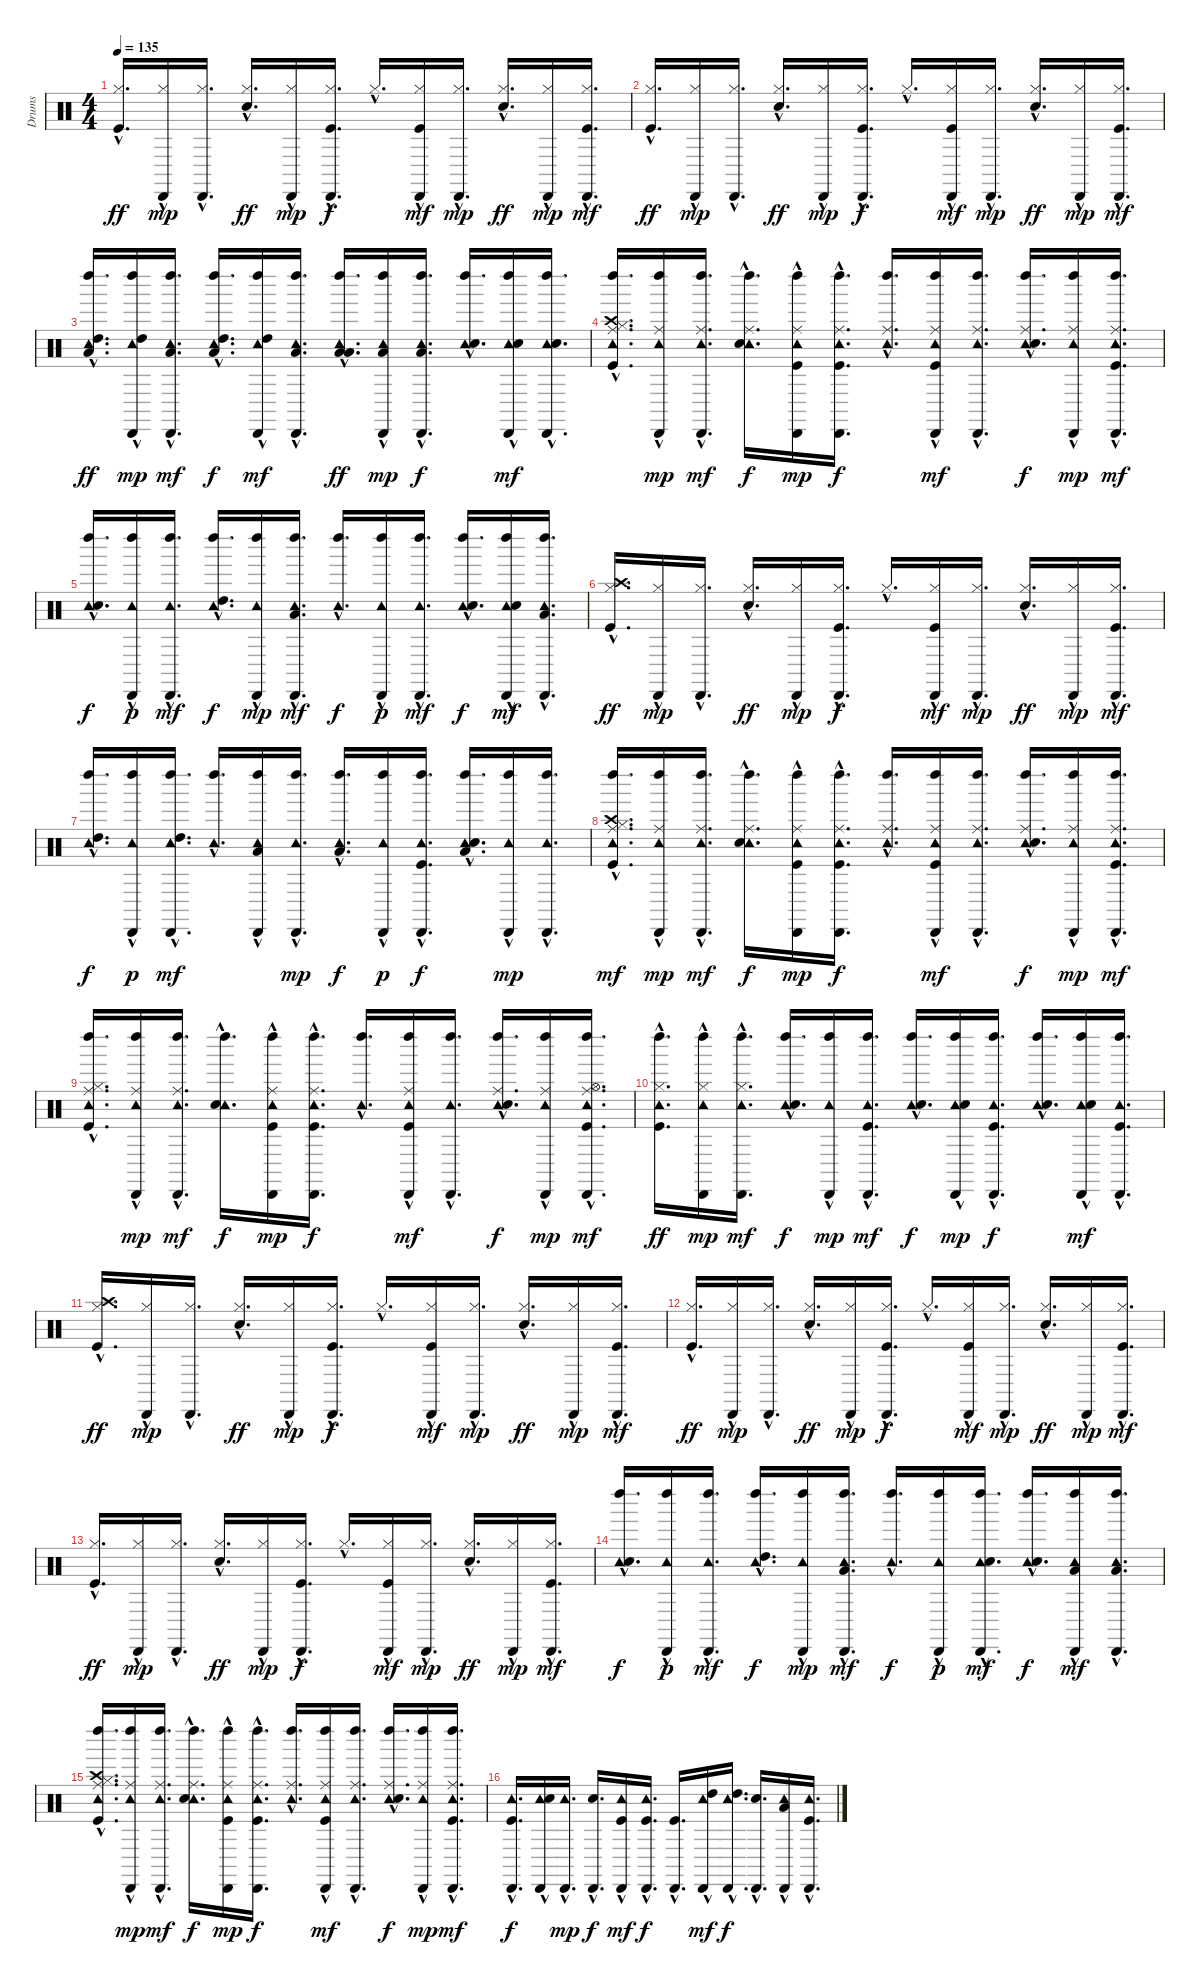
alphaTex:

\track ("Drums" "Drums") {instrument percussion}
\staff {score}
\articulation defaults
\ts (4 4)
\tempo 135
\clef neutral
\ks c
("Hi-Hat (closed)"{hac} "Kick (hit)"{hac}).16{d dy ff} ("Cabasa (hit)"{hac} "Hi-Hat (closed)"{hac}).16{dy mp} ("Cabasa (hit)"{hac} "Hi-Hat (closed)"{hac}).16{d} ("Hi-Hat (closed)"{hac} "Snare (hit) 2"{hac}).16{d dy ff} ("Cabasa (hit)"{hac} "Hi-Hat (closed)"{hac}).16{dy mp} ("Cabasa (hit)"{hac} "Hi-Hat (closed)"{hac} "Kick (hit)"{hac}).16{d dy f} "Hi-Hat (closed)"{hac}.16{d} ("Cabasa (hit)"{hac} "Hi-Hat (closed)"{hac} "Kick (hit)"{hac}).16{dy mf} ("Cabasa (hit)"{hac} "Hi-Hat (closed)"{hac}).16{d dy mp} ("Hi-Hat (closed)"{hac} "Snare (hit) 2"{hac}).16{d dy ff} ("Cabasa (hit)"{hac} "Hi-Hat (closed)"{hac}).16{dy mp} ("Cabasa (hit)"{hac} "Hi-Hat (closed)"{hac} "Kick (hit)"{hac}).16{d dy mf} |
("Hi-Hat (closed)"{hac} "Kick (hit)"{hac}).16{d dy ff} ("Cabasa (hit)"{hac} "Hi-Hat (closed)"{hac}).16{dy mp} ("Cabasa (hit)"{hac} "Hi-Hat (closed)"{hac}).16{d} ("Hi-Hat (closed)"{hac} "Snare (hit) 2"{hac}).16{d dy ff} ("Cabasa (hit)"{hac} "Hi-Hat (closed)"{hac}).16{dy mp} ("Cabasa (hit)"{hac} "Hi-Hat (closed)"{hac} "Kick (hit)"{hac}).16{d dy f} "Hi-Hat (closed)"{hac}.16{d} ("Cabasa (hit)"{hac} "Hi-Hat (closed)"{hac} "Kick (hit)"{hac}).16{dy mf} ("Cabasa (hit)"{hac} "Hi-Hat (closed)"{hac}).16{d dy mp} ("Hi-Hat (closed)"{hac} "Snare (hit) 2"{hac}).16{d dy ff} ("Cabasa (hit)"{hac} "Hi-Hat (closed)"{hac}).16{dy mp} ("Cabasa (hit)"{hac} "Hi-Hat (closed)"{hac} "Kick (hit)"{hac}).16{d dy mf} |
("Left Maraca (hit)"{hac} "Tambourine (hit)"{hac} "High Tom (hit)"{hac} "Low Tom (hit)"{hac}).16{d dy ff} ("Left Maraca (hit)"{hac} "Cabasa (hit)"{hac} "Tambourine (hit)"{hac} "High Tom (hit)"{hac}).16{dy mp} ("Left Maraca (hit)"{hac} "Cabasa (hit)"{hac} "Tambourine (hit)"{hac} "Low Tom (hit)"{hac}).16{d dy mf} ("Left Maraca (hit)"{hac} "Tambourine (hit)"{hac} "High Tom (hit)"{hac} "Low Tom (hit)"{hac}).16{d dy f} ("Left Maraca (hit)"{hac} "Cabasa (hit)"{hac} "Tambourine (hit)"{hac} "High Tom (hit)"{hac}).16{dy mf} ("Left Maraca (hit)"{hac} "Cabasa (hit)"{hac} "Tambourine (hit)"{hac} "Low Tom (hit)"{hac}).16{d} ("Left Maraca (hit)"{hac} "Tambourine (hit)"{hac} "Low Tom (hit)"{hac} "Low Floor Tom (hit)"{hac}).16{d dy ff} ("Left Maraca (hit)"{hac} "Cabasa (hit)"{hac} "Tambourine (hit)"{hac} "Low Tom (hit)"{hac}).16{dy mp} ("Left Maraca (hit)"{hac} "Cabasa (hit)"{hac} "Tambourine (hit)"{hac} "Low Floor Tom (hit)"{hac}).16{d dy f} ("Left Maraca (hit)"{hac} "Tambourine (hit)"{hac} "Snare (hit) 2"{hac}).16{d} ("Left Maraca (hit)"{hac} "Cabasa (hit)"{hac} "Tambourine (hit)"{hac} "Snare (hit) 2"{hac}).16{dy mf} ("Left Maraca (hit)"{hac} "Cabasa (hit)"{hac} "Tambourine (hit)"{hac} "Snare (hit) 2"{hac}).16{d} |
("Left Maraca (hit)"{hac} "Tambourine (hit)"{hac} "Ride (middle)"{hac} "Crash high (hit)"{hac} "Hi-Hat (closed)"{hac} "Kick (hit)"{hac}).16{d} ("Left Maraca (hit)"{hac} "Cabasa (hit)"{hac} "Tambourine (hit)"{hac} "Ride (middle)"{hac}).16{dy mp} ("Left Maraca (hit)"{hac} "Cabasa (hit)"{hac} "Tambourine (hit)"{hac} "Ride (middle)"{hac}).16{d dy mf} ("Left Maraca (hit)"{hac} "Tambourine (hit)"{hac} "Ride (middle)"{hac} "Snare (hit) 2"{hac}).16{d dy f} ("Left Maraca (hit)"{hac} "Cabasa (hit)"{hac} "Tambourine (hit)"{hac} "Ride (middle)"{hac} "Kick (hit)"{hac}).16{dy mp} ("Left Maraca (hit)"{hac} "Cabasa (hit)"{hac} "Tambourine (hit)"{hac} "Ride (middle)"{hac} "Kick (hit)"{hac}).16{d dy f} ("Left Maraca (hit)"{hac} "Tambourine (hit)"{hac} "Ride (middle)"{hac}).16{d} ("Left Maraca (hit)"{hac} "Cabasa (hit)"{hac} "Tambourine (hit)"{hac} "Ride (middle)"{hac} "Kick (hit)"{hac}).16{dy mf} ("Left Maraca (hit)"{hac} "Cabasa (hit)"{hac} "Tambourine (hit)"{hac} "Ride (middle)"{hac}).16{d} ("Left Maraca (hit)"{hac} "Tambourine (hit)"{hac} "Ride (middle)"{hac} "Snare (hit) 2"{hac}).16{d dy f} ("Left Maraca (hit)"{hac} "Cabasa (hit)"{hac} "Tambourine (hit)"{hac} "Ride (middle)"{hac}).16{dy mp} ("Left Maraca (hit)"{hac} "Cabasa (hit)"{hac} "Tambourine (hit)"{hac} "Ride (middle)"{hac} "Kick (hit)"{hac}).16{d dy mf} |
("Left Maraca (hit)"{hac} "Tambourine (hit)"{hac} "Snare (hit) 2"{hac}).16{d dy f} ("Left Maraca (hit)"{hac} "Cabasa (hit)"{hac} "Tambourine (hit)"{hac}).16{dy p} ("Left Maraca (hit)"{hac} "Cabasa (hit)"{hac} "Tambourine (hit)"{hac}).16{d dy mf} ("Left Maraca (hit)"{hac} "Tambourine (hit)"{hac} "High Tom (hit)"{hac}).16{d dy f} ("Left Maraca (hit)"{hac} "Cabasa (hit)"{hac} "Tambourine (hit)"{hac}).16{dy mp} ("Left Maraca (hit)"{hac} "Cabasa (hit)"{hac} "Tambourine (hit)"{hac} "Low Tom (hit)"{hac}).16{d dy mf} ("Left Maraca (hit)"{hac} "Tambourine (hit)"{hac}).16{d dy f} ("Left Maraca (hit)"{hac} "Cabasa (hit)"{hac} "Tambourine (hit)"{hac}).16{dy p} ("Left Maraca (hit)"{hac} "Cabasa (hit)"{hac} "Tambourine (hit)"{hac}).16{d dy mf} ("Left Maraca (hit)"{hac} "Tambourine (hit)"{hac} "Snare (hit) 2"{hac}).16{d dy f} ("Left Maraca (hit)"{hac} "Cabasa (hit)"{hac} "Tambourine (hit)"{hac} "Snare (hit) 2"{hac}).16{dy mf} ("Left Maraca (hit)"{hac} "Cabasa (hit)"{hac} "Tambourine (hit)"{hac} "Low Floor Tom (hit)"{hac}).16{d} |
("Crash high (hit)"{hac} "Hi-Hat (closed)"{hac} "Kick (hit)"{hac}).16{d dy ff} ("Cabasa (hit)"{hac} "Hi-Hat (closed)"{hac}).16{dy mp} ("Cabasa (hit)"{hac} "Hi-Hat (closed)"{hac}).16{d} ("Hi-Hat (closed)"{hac} "Snare (hit) 2"{hac}).16{d dy ff} ("Cabasa (hit)"{hac} "Hi-Hat (closed)"{hac}).16{dy mp} ("Cabasa (hit)"{hac} "Hi-Hat (closed)"{hac} "Kick (hit)"{hac}).16{d dy f} "Hi-Hat (closed)"{hac}.16{d} ("Cabasa (hit)"{hac} "Hi-Hat (closed)"{hac} "Kick (hit)"{hac}).16{dy mf} ("Cabasa (hit)"{hac} "Hi-Hat (closed)"{hac}).16{d dy mp} ("Hi-Hat (closed)"{hac} "Snare (hit) 2"{hac}).16{d dy ff} ("Cabasa (hit)"{hac} "Hi-Hat (closed)"{hac}).16{dy mp} ("Cabasa (hit)"{hac} "Hi-Hat (closed)"{hac} "Kick (hit)"{hac}).16{d dy mf} |
("Left Maraca (hit)"{hac} "Tambourine (hit)"{hac} "High Tom (hit)"{hac}).16{d dy f} ("Left Maraca (hit)"{hac} "Cabasa (hit)"{hac} "Tambourine (hit)"{hac}).16{dy p} ("Left Maraca (hit)"{hac} "Cabasa (hit)"{hac} "Tambourine (hit)"{hac} "High Tom (hit)"{hac}).16{d dy mf} ("Left Maraca (hit)"{hac} "Tambourine (hit)"{hac}).16{d} ("Left Maraca (hit)"{hac} "Cabasa (hit)"{hac} "Tambourine (hit)"{hac} "Low Tom (hit)"{hac}).16 ("Left Maraca (hit)"{hac} "Cabasa (hit)"{hac} "Tambourine (hit)"{hac}).16{d dy mp} ("Left Maraca (hit)"{hac} "Tambourine (hit)"{hac} "Low Tom (hit)"{hac}).16{d dy f} ("Left Maraca (hit)"{hac} "Cabasa (hit)"{hac} "Tambourine (hit)"{hac}).16{dy p} ("Left Maraca (hit)"{hac} "Cabasa (hit)"{hac} "Tambourine (hit)"{hac} "Kick (hit)"{hac}).16{d dy f} ("Left Maraca (hit)"{hac} "Tambourine (hit)"{hac} "Low Floor Tom (hit)"{hac} "Snare (hit) 2"{hac}).16{d} ("Left Maraca (hit)"{hac} "Cabasa (hit)"{hac} "Tambourine (hit)"{hac}).16{dy mp} ("Left Maraca (hit)"{hac} "Cabasa (hit)"{hac} "Tambourine (hit)"{hac}).16{d} |
("Left Maraca (hit)"{hac} "Tambourine (hit)"{hac} "Ride (middle)"{hac} "Crash high (hit)"{hac} "Hi-Hat (closed)"{hac} "Kick (hit)"{hac}).16{d dy mf} ("Left Maraca (hit)"{hac} "Cabasa (hit)"{hac} "Tambourine (hit)"{hac} "Ride (middle)"{hac}).16{dy mp} ("Left Maraca (hit)"{hac} "Cabasa (hit)"{hac} "Tambourine (hit)"{hac} "Ride (middle)"{hac}).16{d dy mf} ("Left Maraca (hit)"{hac} "Tambourine (hit)"{hac} "Ride (middle)"{hac} "Snare (hit) 2"{hac}).16{d dy f} ("Left Maraca (hit)"{hac} "Cabasa (hit)"{hac} "Tambourine (hit)"{hac} "Ride (middle)"{hac} "Kick (hit)"{hac}).16{dy mp} ("Left Maraca (hit)"{hac} "Cabasa (hit)"{hac} "Tambourine (hit)"{hac} "Ride (middle)"{hac} "Kick (hit)"{hac}).16{d dy f} ("Left Maraca (hit)"{hac} "Tambourine (hit)"{hac} "Ride (middle)"{hac}).16{d} ("Left Maraca (hit)"{hac} "Cabasa (hit)"{hac} "Tambourine (hit)"{hac} "Ride (middle)"{hac} "Kick (hit)"{hac}).16{dy mf} ("Left Maraca (hit)"{hac} "Cabasa (hit)"{hac} "Tambourine (hit)"{hac} "Ride (middle)"{hac}).16{d} ("Left Maraca (hit)"{hac} "Tambourine (hit)"{hac} "Ride (middle)"{hac} "Snare (hit) 2"{hac}).16{d dy f} ("Left Maraca (hit)"{hac} "Cabasa (hit)"{hac} "Tambourine (hit)"{hac} "Ride (middle)"{hac}).16{dy mp} ("Left Maraca (hit)"{hac} "Cabasa (hit)"{hac} "Tambourine (hit)"{hac} "Ride (middle)"{hac} "Kick (hit)"{hac}).16{d dy mf} |
("Left Maraca (hit)"{hac} "Tambourine (hit)"{hac} "Ride (middle)"{hac} "Hi-Hat (closed)"{hac} "Kick (hit)"{hac}).16{d} ("Left Maraca (hit)"{hac} "Cabasa (hit)"{hac} "Tambourine (hit)"{hac} "Ride (middle)"{hac}).16{dy mp} ("Left Maraca (hit)"{hac} "Cabasa (hit)"{hac} "Tambourine (hit)"{hac} "Ride (middle)"{hac}).16{d dy mf} ("Left Maraca (hit)"{hac} "Tambourine (hit)"{hac} "Snare (hit) 2"{hac}).16{d dy f} ("Left Maraca (hit)"{hac} "Cabasa (hit)"{hac} "Tambourine (hit)"{hac} "Ride (middle)"{hac} "Kick (hit)"{hac}).16{dy mp} ("Left Maraca (hit)"{hac} "Cabasa (hit)"{hac} "Tambourine (hit)"{hac} "Ride (middle)"{hac} "Kick (hit)"{hac}).16{d dy f} ("Left Maraca (hit)"{hac} "Tambourine (hit)"{hac}).16{d} ("Left Maraca (hit)"{hac} "Cabasa (hit)"{hac} "Tambourine (hit)"{hac} "Ride (middle)"{hac} "Kick (hit)"{hac}).16{dy mf} ("Left Maraca (hit)"{hac} "Cabasa (hit)"{hac} "Tambourine (hit)"{hac}).16{d} ("Left Maraca (hit)"{hac} "Tambourine (hit)"{hac} "Ride (middle)"{hac} "Snare (hit) 2"{hac}).16{d dy f} ("Left Maraca (hit)"{hac} "Cabasa (hit)"{hac} "Tambourine (hit)"{hac} "Ride (middle)"{hac}).16{dy mp} ("Left Maraca (hit)"{hac} "Cabasa (hit)"{hac} "Tambourine (hit)"{hac} "Ride (middle)"{hac} "Hi-Hat (open)"{hac} "Kick (hit)"{hac}).16{d dy mf} |
("Left Maraca (hit)"{hac} "Tambourine (hit)"{hac} "Hi-Hat (closed)"{hac} "Kick (hit)"{hac}).16{d dy ff} ("Left Maraca (hit)"{hac} "Cabasa (hit)"{hac} "Tambourine (hit)"{hac} "Hi-Hat (closed)"{hac}).16{dy mp} ("Left Maraca (hit)"{hac} "Cabasa (hit)"{hac} "Tambourine (hit)"{hac} "Hi-Hat (closed)"{hac}).16{d dy mf} ("Left Maraca (hit)"{hac} "Tambourine (hit)"{hac} "Snare (hit) 2"{hac}).16{d dy f} ("Left Maraca (hit)"{hac} "Cabasa (hit)"{hac} "Tambourine (hit)"{hac}).16{dy mp} ("Left Maraca (hit)"{hac} "Cabasa (hit)"{hac} "Tambourine (hit)"{hac} "Kick (hit)"{hac}).16{d dy mf} ("Left Maraca (hit)"{hac} "Tambourine (hit)"{hac} "Snare (hit) 2"{hac}).16{d dy f} ("Left Maraca (hit)"{hac} "Cabasa (hit)"{hac} "Tambourine (hit)"{hac} "Snare (hit) 2"{hac}).16{dy mp} ("Left Maraca (hit)"{hac} "Cabasa (hit)"{hac} "Tambourine (hit)"{hac} "Kick (hit)"{hac}).16{d dy f} ("Left Maraca (hit)"{hac} "Tambourine (hit)"{hac} "Snare (hit) 2"{hac}).16{d} ("Left Maraca (hit)"{hac} "Cabasa (hit)"{hac} "Tambourine (hit)"{hac} "Snare (hit) 2"{hac}).16{dy mf} ("Left Maraca (hit)"{hac} "Cabasa (hit)"{hac} "Tambourine (hit)"{hac} "Kick (hit)"{hac}).16{d} |
("Crash high (hit)"{hac} "Hi-Hat (closed)"{hac} "Kick (hit)"{hac}).16{d dy ff} ("Cabasa (hit)"{hac} "Hi-Hat (closed)"{hac}).16{dy mp} ("Cabasa (hit)"{hac} "Hi-Hat (closed)"{hac}).16{d} ("Hi-Hat (closed)"{hac} "Snare (hit) 2"{hac}).16{d dy ff} ("Cabasa (hit)"{hac} "Hi-Hat (closed)"{hac}).16{dy mp} ("Cabasa (hit)"{hac} "Hi-Hat (closed)"{hac} "Kick (hit)"{hac}).16{d dy f} "Hi-Hat (closed)"{hac}.16{d} ("Cabasa (hit)"{hac} "Hi-Hat (closed)"{hac} "Kick (hit)"{hac}).16{dy mf} ("Cabasa (hit)"{hac} "Hi-Hat (closed)"{hac}).16{d dy mp} ("Hi-Hat (closed)"{hac} "Snare (hit) 2"{hac}).16{d dy ff} ("Cabasa (hit)"{hac} "Hi-Hat (closed)"{hac}).16{dy mp} ("Cabasa (hit)"{hac} "Hi-Hat (closed)"{hac} "Kick (hit)"{hac}).16{d dy mf} |
("Hi-Hat (closed)"{hac} "Kick (hit)"{hac}).16{d dy ff} ("Cabasa (hit)"{hac} "Hi-Hat (closed)"{hac}).16{dy mp} ("Cabasa (hit)"{hac} "Hi-Hat (closed)"{hac}).16{d} ("Hi-Hat (closed)"{hac} "Snare (hit) 2"{hac}).16{d dy ff} ("Cabasa (hit)"{hac} "Hi-Hat (closed)"{hac}).16{dy mp} ("Cabasa (hit)"{hac} "Hi-Hat (closed)"{hac} "Kick (hit)"{hac}).16{d dy f} "Hi-Hat (closed)"{hac}.16{d} ("Cabasa (hit)"{hac} "Hi-Hat (closed)"{hac} "Kick (hit)"{hac}).16{dy mf} ("Cabasa (hit)"{hac} "Hi-Hat (closed)"{hac}).16{d dy mp} ("Hi-Hat (closed)"{hac} "Snare (hit) 2"{hac}).16{d dy ff} ("Cabasa (hit)"{hac} "Hi-Hat (closed)"{hac}).16{dy mp} ("Cabasa (hit)"{hac} "Hi-Hat (closed)"{hac} "Kick (hit)"{hac}).16{d dy mf} |
("Hi-Hat (closed)"{hac} "Kick (hit)"{hac}).16{d dy ff} ("Cabasa (hit)"{hac} "Hi-Hat (closed)"{hac}).16{dy mp} ("Cabasa (hit)"{hac} "Hi-Hat (closed)"{hac}).16{d} ("Hi-Hat (closed)"{hac} "Snare (hit) 2"{hac}).16{d dy ff} ("Cabasa (hit)"{hac} "Hi-Hat (closed)"{hac}).16{dy mp} ("Cabasa (hit)"{hac} "Hi-Hat (closed)"{hac} "Kick (hit)"{hac}).16{d dy f} "Hi-Hat (closed)"{hac}.16{d} ("Cabasa (hit)"{hac} "Hi-Hat (closed)"{hac} "Kick (hit)"{hac}).16{dy mf} ("Cabasa (hit)"{hac} "Hi-Hat (closed)"{hac}).16{d dy mp} ("Hi-Hat (closed)"{hac} "Snare (hit) 2"{hac}).16{d dy ff} ("Cabasa (hit)"{hac} "Hi-Hat (closed)"{hac}).16{dy mp} ("Cabasa (hit)"{hac} "Hi-Hat (closed)"{hac} "Kick (hit)"{hac}).16{d dy mf} |
("Left Maraca (hit)"{hac} "Tambourine (hit)"{hac} "Snare (hit) 2"{hac}).16{d dy f} ("Left Maraca (hit)"{hac} "Cabasa (hit)"{hac} "Tambourine (hit)"{hac}).16{dy p} ("Left Maraca (hit)"{hac} "Cabasa (hit)"{hac} "Tambourine (hit)"{hac}).16{d dy mf} ("Left Maraca (hit)"{hac} "Tambourine (hit)"{hac} "High Tom (hit)"{hac}).16{d dy f} ("Left Maraca (hit)"{hac} "Cabasa (hit)"{hac} "Tambourine (hit)"{hac}).16{dy mp} ("Left Maraca (hit)"{hac} "Cabasa (hit)"{hac} "Tambourine (hit)"{hac} "Low Tom (hit)"{hac}).16{d dy mf} ("Left Maraca (hit)"{hac} "Tambourine (hit)"{hac}).16{d dy f} ("Left Maraca (hit)"{hac} "Cabasa (hit)"{hac} "Tambourine (hit)"{hac}).16{dy p} ("Left Maraca (hit)"{hac} "Cabasa (hit)"{hac} "Tambourine (hit)"{hac} "Snare (hit) 2"{hac}).16{d dy mf} ("Left Maraca (hit)"{hac} "Tambourine (hit)"{hac} "Snare (hit) 2"{hac}).16{d dy f} ("Left Maraca (hit)"{hac} "Cabasa (hit)"{hac} "Tambourine (hit)"{hac} "Low Floor Tom (hit)"{hac}).16{dy mf} ("Left Maraca (hit)"{hac} "Cabasa (hit)"{hac} "Tambourine (hit)"{hac} "Low Floor Tom (hit)"{hac}).16{d} |
("Left Maraca (hit)"{hac} "Tambourine (hit)"{hac} "Ride (middle)"{hac} "Crash high (hit)"{hac} "Hi-Hat (closed)"{hac} "Kick (hit)"{hac}).16{d} ("Left Maraca (hit)"{hac} "Cabasa (hit)"{hac} "Tambourine (hit)"{hac} "Ride (middle)"{hac}).16{dy mp} ("Left Maraca (hit)"{hac} "Cabasa (hit)"{hac} "Tambourine (hit)"{hac} "Ride (middle)"{hac}).16{d dy mf} ("Left Maraca (hit)"{hac} "Tambourine (hit)"{hac} "Ride (middle)"{hac} "Snare (hit) 2"{hac}).16{d dy f} ("Left Maraca (hit)"{hac} "Cabasa (hit)"{hac} "Tambourine (hit)"{hac} "Ride (middle)"{hac} "Kick (hit)"{hac}).16{dy mp} ("Left Maraca (hit)"{hac} "Cabasa (hit)"{hac} "Tambourine (hit)"{hac} "Ride (middle)"{hac} "Kick (hit)"{hac}).16{d dy f} ("Left Maraca (hit)"{hac} "Tambourine (hit)"{hac} "Ride (middle)"{hac}).16{d} ("Left Maraca (hit)"{hac} "Cabasa (hit)"{hac} "Tambourine (hit)"{hac} "Ride (middle)"{hac} "Kick (hit)"{hac}).16{dy mf} ("Left Maraca (hit)"{hac} "Cabasa (hit)"{hac} "Tambourine (hit)"{hac} "Ride (middle)"{hac}).16{d} ("Left Maraca (hit)"{hac} "Tambourine (hit)"{hac} "Ride (middle)"{hac} "Snare (hit) 2"{hac}).16{d dy f} ("Left Maraca (hit)"{hac} "Cabasa (hit)"{hac} "Tambourine (hit)"{hac} "Ride (middle)"{hac}).16{dy mp} ("Left Maraca (hit)"{hac} "Cabasa (hit)"{hac} "Tambourine (hit)"{hac} "Ride (middle)"{hac} "Kick (hit)"{hac}).16{d dy mf} |
("Cabasa (hit)"{hac} "Tambourine (hit)"{hac} "Kick (hit)"{hac}).16{d dy f} ("Cabasa (hit)"{hac} "Tambourine (hit)"{hac} "Snare (hit) 2"{hac}).16 ("Cabasa (hit)"{hac} "Tambourine (hit)"{hac}).16{d dy mp} ("Cabasa (hit)"{hac} "Snare (hit) 2"{hac}).16{d dy f} ("Cabasa (hit)"{hac} "Tambourine (hit)"{hac} "Kick (hit)"{hac}).16{dy mf} ("Cabasa (hit)"{hac} "Tambourine (hit)"{hac} "Kick (hit)"{hac}).16{d dy f} ("Cabasa (hit)"{hac} "Kick (hit)"{hac}).16{d} ("Cabasa (hit)"{hac} "Tambourine (hit)"{hac} "High Tom (hit)"{hac}).16{dy mf} ("Cabasa (hit)"{hac} "Tambourine (hit)"{hac} "High Tom (hit)"{hac}).16{d dy f} ("Cabasa (hit)"{hac} "Snare (hit) 2"{hac}).16{d} ("Cabasa (hit)"{hac} "Tambourine (hit)"{hac} "Low Tom (hit)"{hac}).16 ("Cabasa (hit)"{hac} "Tambourine (hit)"{hac} "Kick (hit)"{hac}).16{d}
